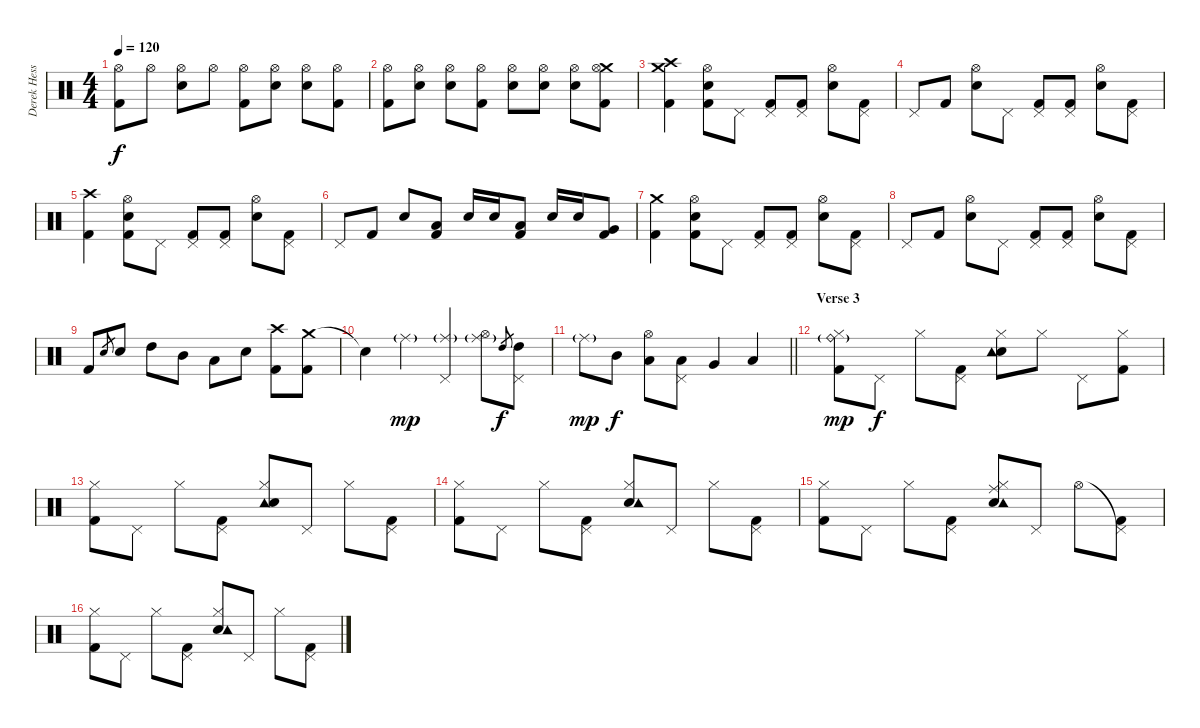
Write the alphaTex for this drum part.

\track ("Derek Hess (Drums and Percussion)" "Derek Hess") {instrument percussion}
\staff {score}
\articulation defaults
\ts (4 4)
\tempo 120
\clef neutral
\ks c
("Hi-Hat (open)" "Kick (hit) 2").8{dy f} "Hi-Hat (open)".8 ("Hi-Hat (open)" "Snare (hit) 2").8 "Hi-Hat (open)".8 ("Hi-Hat (open)" "Kick (hit) 2").8 ("Hi-Hat (open)" "Snare (hit) 2").8 ("Hi-Hat (open)" "Snare (hit) 2").8 ("Hi-Hat (open)" "Kick (hit) 2").8 |
("Hi-Hat (open)" "Kick (hit) 2").8 ("Hi-Hat (open)" "Snare (hit) 2").8 ("Hi-Hat (open)" "Snare (hit) 2").8 ("Hi-Hat (open)" "Kick (hit) 2").8 ("Hi-Hat (open)" "Snare (hit) 2").8 ("Hi-Hat (open)" "Snare (hit) 2").8 ("Hi-Hat (open)" "Snare (hit) 2").8 ("Crash medium (hit)" "Hi-Hat (open)" "Kick (hit) 2").8 |
("Crash high (hit)" "Crash medium (hit)" "Kick (hit) 2").4 ("Snare (hit) 2" "Hi-Hat (open)" "Kick (hit) 2").8 "Pedal Hi-Hat (hit)".8 ("Pedal Hi-Hat (hit)" "Kick (hit) 2").8 ("Pedal Hi-Hat (hit)" "Kick (hit) 2").8 ("Snare (hit) 2" "Hi-Hat (open)").8 ("Pedal Hi-Hat (hit)" "Kick (hit) 2").8 |
"Pedal Hi-Hat (hit)".8 "Kick (hit) 2".8 ("Snare (hit) 2" "Hi-Hat (open)").8 "Pedal Hi-Hat (hit)".8 ("Pedal Hi-Hat (hit)" "Kick (hit) 2").8 ("Pedal Hi-Hat (hit)" "Kick (hit) 2").8 ("Snare (hit) 2" "Hi-Hat (open)").8 ("Pedal Hi-Hat (hit)" "Kick (hit) 2").8 |
("Crash high (hit)" "Kick (hit) 2").4 ("Snare (hit) 2" "Hi-Hat (open)" "Kick (hit) 2").8 "Pedal Hi-Hat (hit)".8 ("Pedal Hi-Hat (hit)" "Kick (hit) 2").8 ("Pedal Hi-Hat (hit)" "Kick (hit) 2").8 ("Snare (hit) 2" "Hi-Hat (open)").8 ("Pedal Hi-Hat (hit)" "Kick (hit) 2").8 |
"Pedal Hi-Hat (hit)".8 "Kick (hit) 2".8 "Snare (hit) 2".8 ("Low Floor Tom (hit)" "Kick (hit) 2").8 "Snare (hit) 2".16 "Snare (hit) 2".16 ("Low Floor Tom (hit)" "Kick (hit) 2").8 "Snare (hit) 2".16 "Snare (hit) 2".16 ("Very Low Tom (hit)" "Kick (hit) 2").8 |
("Crash medium (hit)" "Kick (hit) 2").4 ("Snare (hit) 2" "Hi-Hat (open)" "Kick (hit) 2").8 "Pedal Hi-Hat (hit)".8 ("Pedal Hi-Hat (hit)" "Kick (hit) 2").8 ("Pedal Hi-Hat (hit)" "Kick (hit) 2").8 ("Snare (hit) 2" "Hi-Hat (open)").8 ("Pedal Hi-Hat (hit)" "Kick (hit) 2").8 |
"Pedal Hi-Hat (hit)".8 "Kick (hit) 2".8 ("Snare (hit) 2" "Hi-Hat (open)").8 "Pedal Hi-Hat (hit)".8 ("Pedal Hi-Hat (hit)" "Kick (hit) 2").8 ("Pedal Hi-Hat (hit)" "Kick (hit) 2").8 ("Snare (hit) 2" "Hi-Hat (open)").8 ("Pedal Hi-Hat (hit)" "Kick (hit) 2").8 |
"Kick (hit) 2".8 "Snare (hit) 2".8{gr} "Snare (hit) 2".8 "High Tom (hit)".8 "Mid Tom (hit)".8 "Low Tom (hit)".8 "Snare (hit) 2".8 ("Crash high (hit)" "Kick (hit) 2").8 ("Crash medium (hit)" "Kick (hit) 2").8 |
"Snare (hit)"{t}.4 "Ride (middle)"{g}.4{dy mp} ("Ride (middle)"{g} "Pedal Hi-Hat (hit)").4 ("Ride (middle)"{g} "Hi-Hat (open)").8 "High Tom (hit)".8{gr dy f} ("High Tom (hit)" "Pedal Hi-Hat (hit)").8 |
\barLineRight lightlight "Ride (middle)"{g}.8{dy mp} "Mid Tom (hit)".8{dy f}
("Low Tom (hit)" "Hi-Hat (open)").8 ("Low Tom (hit)" "Pedal Hi-Hat (hit)").8 "Very Low Tom (hit)".4 "Low Floor Tom (hit)".4 |
\section ("" "Verse 3")
("Ride (bell)"{g} "Hi-Hat (closed)" "Kick (hit) 2").8{dy mp} "Pedal Hi-Hat (hit)".8{dy f} "Hi-Hat (closed)".8 ("Pedal Hi-Hat (hit)" "Kick (hit) 2").8 ("Hi-Hat (closed)" "Snare (hit) 2" "Tambourine (hit)").8 "Hi-Hat (closed)".8 "Pedal Hi-Hat (hit)".8 ("Hi-Hat (closed)" "Kick (hit) 2").8 |
("Hi-Hat (closed)" "Kick (hit) 2").8 "Pedal Hi-Hat (hit)".8 "Hi-Hat (closed)".8 ("Pedal Hi-Hat (hit)" "Kick (hit) 2").8 ("Hi-Hat (closed)" "Tambourine (hit)" "Snare (hit) 2").8 "Pedal Hi-Hat (hit)".8 "Hi-Hat (closed)".8 ("Pedal Hi-Hat (hit)" "Kick (hit) 2").8 |
("Hi-Hat (closed)" "Kick (hit) 2").8 "Pedal Hi-Hat (hit)".8 "Hi-Hat (closed)".8 ("Pedal Hi-Hat (hit)" "Kick (hit) 2").8 ("Hi-Hat (closed)" "Snare (hit) 2" "Tambourine (hit)").8 "Pedal Hi-Hat (hit)".8 "Hi-Hat (closed)".8 ("Pedal Hi-Hat (hit)" "Kick (hit) 2").8 |
("Hi-Hat (closed)" "Kick (hit) 2").8 "Pedal Hi-Hat (hit)".8 "Hi-Hat (closed)".8 ("Pedal Hi-Hat (hit)" "Kick (hit) 2").8 ("Hi-Hat (closed)" "Snare (hit) 2" "Tambourine (hit)" "Ride (middle)").8 "Pedal Hi-Hat (hit)".8 "Hi-Hat (open)".8 ("Pedal Hi-Hat (hit)"{t} "Kick (hit) 2").8 |
("Hi-Hat (closed)" "Kick (hit) 2").8 "Pedal Hi-Hat (hit)".8 "Hi-Hat (closed)".8 ("Pedal Hi-Hat (hit)" "Kick (hit) 2").8 ("Hi-Hat (closed)" "Snare (hit) 2" "Tambourine (hit)").8 "Pedal Hi-Hat (hit)".8 "Hi-Hat (closed)".8 ("Pedal Hi-Hat (hit)" "Kick (hit) 2").8
